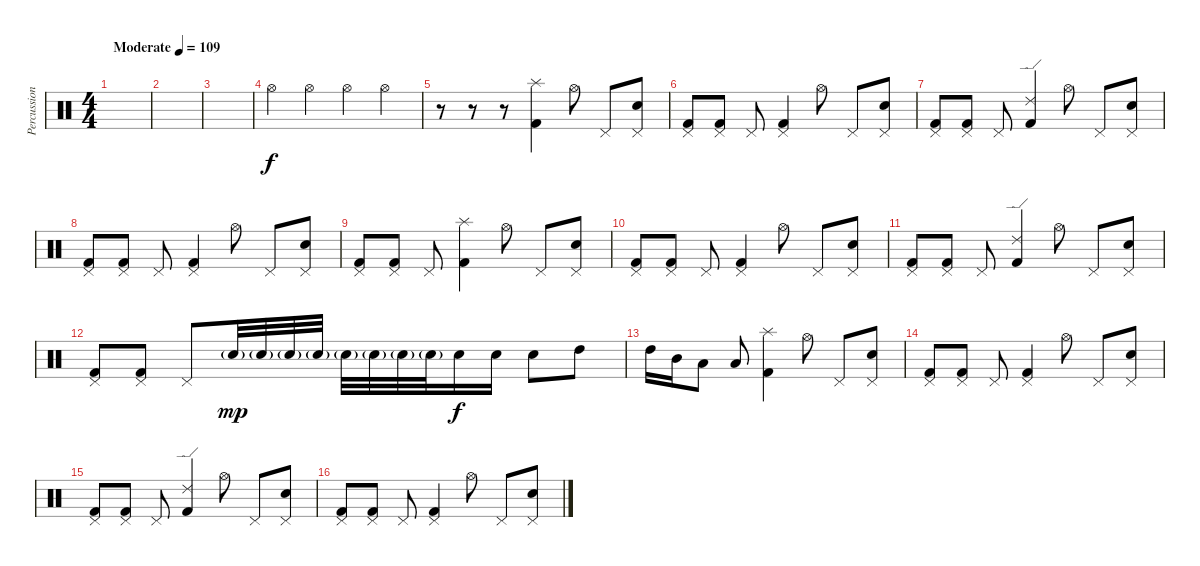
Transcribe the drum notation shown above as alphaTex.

\track ("Percussion" "Percussion") {instrument percussion}
\staff {score}
\articulation defaults
\ts (4 4)
\tempo (109 "Moderate")
\clef neutral
\ks c
|
|
|
"Hi-Hat (open)".4 "Hi-Hat (open)".4 "Hi-Hat (open)".4 "Hi-Hat (open)".4 |
r.8 r.8 r.8 ("Splash (hit)" "Kick (hit) 2").4 "Hi-Hat (open)".8 "Pedal Hi-Hat (hit)".8 ("Pedal Hi-Hat (hit)" "Snare (hit) 2").8 |
("Pedal Hi-Hat (hit)" "Kick (hit) 2").8 ("Pedal Hi-Hat (hit)" "Kick (hit) 2").8 "Pedal Hi-Hat (hit)".8 ("Pedal Hi-Hat (hit)" "Kick (hit) 2").4 "Hi-Hat (open)".8 "Pedal Hi-Hat (hit)".8 ("Pedal Hi-Hat (hit)" "Snare (hit) 2").8 |
("Pedal Hi-Hat (hit)" "Kick (hit) 2").8 ("Pedal Hi-Hat (hit)" "Kick (hit) 2").8 "Pedal Hi-Hat (hit)".8 ("Ride (edge) 2" "Kick (hit) 2").4 "Hi-Hat (open)".8 "Pedal Hi-Hat (hit)".8 ("Pedal Hi-Hat (hit)" "Snare (hit) 2").8 |
("Pedal Hi-Hat (hit)" "Kick (hit) 2").8 ("Pedal Hi-Hat (hit)" "Kick (hit) 2").8 "Pedal Hi-Hat (hit)".8 ("Pedal Hi-Hat (hit)" "Kick (hit) 2").4 "Hi-Hat (open)".8 "Pedal Hi-Hat (hit)".8 ("Pedal Hi-Hat (hit)" "Snare (hit) 2").8 |
("Pedal Hi-Hat (hit)" "Kick (hit) 2").8 ("Pedal Hi-Hat (hit)" "Kick (hit) 2").8 "Pedal Hi-Hat (hit)".8 ("Splash (hit)" "Kick (hit) 2").4 "Hi-Hat (open)".8 "Pedal Hi-Hat (hit)".8 ("Pedal Hi-Hat (hit)" "Snare (hit) 2").8 |
("Pedal Hi-Hat (hit)" "Kick (hit) 2").8 ("Pedal Hi-Hat (hit)" "Kick (hit) 2").8 "Pedal Hi-Hat (hit)".8 ("Pedal Hi-Hat (hit)" "Kick (hit) 2").4 "Hi-Hat (open)".8 "Pedal Hi-Hat (hit)".8 ("Pedal Hi-Hat (hit)" "Snare (hit) 2").8 |
("Pedal Hi-Hat (hit)" "Kick (hit) 2").8 ("Pedal Hi-Hat (hit)" "Kick (hit) 2").8 "Pedal Hi-Hat (hit)".8 ("Ride (edge) 2" "Kick (hit) 2").4 "Hi-Hat (open)".8 "Pedal Hi-Hat (hit)".8 ("Pedal Hi-Hat (hit)" "Snare (hit) 2").8 |
("Pedal Hi-Hat (hit)" "Kick (hit) 2").8 ("Pedal Hi-Hat (hit)" "Kick (hit) 2").8 "Pedal Hi-Hat (hit)".8 "Snare (hit) 2"{g}.32{dy mp volume 5} "Snare (hit) 2"{g}.32 "Snare (hit) 2"{g}.32 "Snare (hit) 2"{g}.32 "Snare (hit) 2"{g}.32 "Snare (hit) 2"{g}.32 "Snare (hit) 2"{g}.32 "Snare (hit) 2"{g}.32{volume 11} "Snare (hit) 2".16{dy f} "Snare (hit) 2".16 "Snare (hit) 2".8 "High Tom (hit)".8 |
"High Tom (hit)".16 "Mid Tom (hit)".16 "Low Tom (hit)".8 "Low Floor Tom (hit)".8 ("Splash (hit)" "Kick (hit) 2").4 "Hi-Hat (open)".8 "Pedal Hi-Hat (hit)".8 ("Pedal Hi-Hat (hit)" "Snare (hit) 2").8 |
("Pedal Hi-Hat (hit)" "Kick (hit) 2").8 ("Pedal Hi-Hat (hit)" "Kick (hit) 2").8 "Pedal Hi-Hat (hit)".8 ("Pedal Hi-Hat (hit)" "Kick (hit) 2").4 "Hi-Hat (open)".8 "Pedal Hi-Hat (hit)".8 ("Pedal Hi-Hat (hit)" "Snare (hit) 2").8 |
("Pedal Hi-Hat (hit)" "Kick (hit) 2").8 ("Pedal Hi-Hat (hit)" "Kick (hit) 2").8 "Pedal Hi-Hat (hit)".8 ("Ride (edge) 2" "Kick (hit) 2").4 "Hi-Hat (open)".8 "Pedal Hi-Hat (hit)".8 ("Pedal Hi-Hat (hit)" "Snare (hit) 2").8 |
("Pedal Hi-Hat (hit)" "Kick (hit) 2").8 ("Pedal Hi-Hat (hit)" "Kick (hit) 2").8 "Pedal Hi-Hat (hit)".8 ("Pedal Hi-Hat (hit)" "Kick (hit) 2").4 "Hi-Hat (open)".8 "Pedal Hi-Hat (hit)".8 ("Pedal Hi-Hat (hit)" "Snare (hit) 2").8
